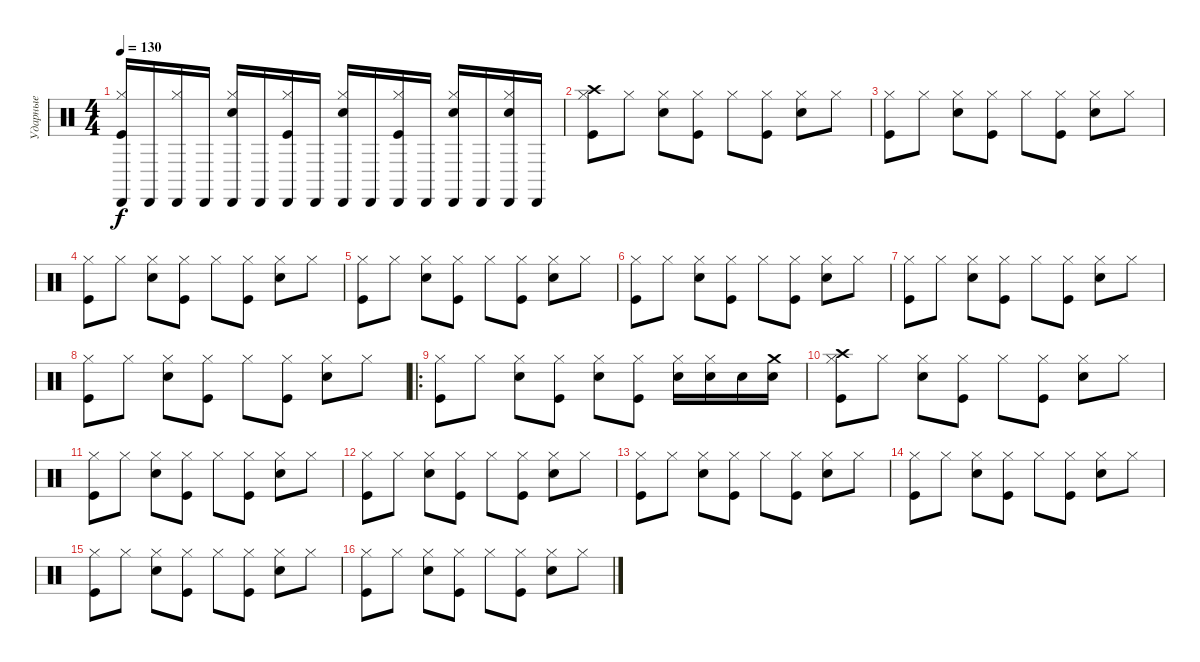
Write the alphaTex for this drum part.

\track ("Ударные" "Ударные") {instrument percussion}
\staff {score}
\articulation defaults
\ts (4 4)
\tempo 130
\clef neutral
\ks c
("Cabasa (hit)" "Hi-Hat (closed)" "Kick (hit)").16{dy f} "Cabasa (hit)".16 ("Cabasa (hit)" "Hi-Hat (closed)").16 "Cabasa (hit)".16 ("Cabasa (hit)" "Hi-Hat (closed)" "Electric Snare (hit)").16 "Cabasa (hit)".16 ("Cabasa (hit)" "Hi-Hat (closed)" "Kick (hit)").16 "Cabasa (hit)".16 ("Cabasa (hit)" "Hi-Hat (closed)" "Electric Snare (hit)").16 "Cabasa (hit)".16 ("Cabasa (hit)" "Hi-Hat (closed)" "Kick (hit)").16 "Cabasa (hit)".16 ("Cabasa (hit)" "Hi-Hat (closed)" "Electric Snare (hit)").16 "Cabasa (hit)".16 ("Cabasa (hit)" "Hi-Hat (closed)" "Electric Snare (hit)").16 "Cabasa (hit)".16 |
("Hi-Hat (closed)" "Crash high (hit)" "Kick (hit)").8 "Hi-Hat (closed)".8 ("Hi-Hat (closed)" "Electric Snare (hit)").8 ("Hi-Hat (closed)" "Kick (hit)").8 "Hi-Hat (closed)".8 ("Hi-Hat (closed)" "Kick (hit)").8 ("Hi-Hat (closed)" "Electric Snare (hit)").8 "Hi-Hat (closed)".8 |
("Hi-Hat (closed)" "Kick (hit)").8 "Hi-Hat (closed)".8 ("Hi-Hat (closed)" "Electric Snare (hit)").8 ("Hi-Hat (closed)" "Kick (hit)").8 "Hi-Hat (closed)".8 ("Hi-Hat (closed)" "Kick (hit)").8 ("Hi-Hat (closed)" "Electric Snare (hit)").8 "Hi-Hat (closed)".8 |
("Hi-Hat (closed)" "Kick (hit)").8 "Hi-Hat (closed)".8 ("Hi-Hat (closed)" "Electric Snare (hit)").8 ("Hi-Hat (closed)" "Kick (hit)").8 "Hi-Hat (closed)".8 ("Hi-Hat (closed)" "Kick (hit)").8 ("Hi-Hat (closed)" "Electric Snare (hit)").8 "Hi-Hat (closed)".8 |
("Hi-Hat (closed)" "Kick (hit)").8 "Hi-Hat (closed)".8 ("Hi-Hat (closed)" "Electric Snare (hit)").8 ("Hi-Hat (closed)" "Kick (hit)").8 "Hi-Hat (closed)".8 ("Hi-Hat (closed)" "Kick (hit)").8 ("Hi-Hat (closed)" "Electric Snare (hit)").8 "Hi-Hat (closed)".8 |
("Hi-Hat (closed)" "Kick (hit)").8 "Hi-Hat (closed)".8 ("Hi-Hat (closed)" "Electric Snare (hit)").8 ("Hi-Hat (closed)" "Kick (hit)").8 "Hi-Hat (closed)".8 ("Hi-Hat (closed)" "Kick (hit)").8 ("Hi-Hat (closed)" "Electric Snare (hit)").8 "Hi-Hat (closed)".8 |
("Hi-Hat (closed)" "Kick (hit)").8 "Hi-Hat (closed)".8 ("Hi-Hat (closed)" "Electric Snare (hit)").8 ("Hi-Hat (closed)" "Kick (hit)").8 "Hi-Hat (closed)".8 ("Hi-Hat (closed)" "Kick (hit)").8 ("Hi-Hat (closed)" "Electric Snare (hit)").8 "Hi-Hat (closed)".8 |
("Hi-Hat (closed)" "Kick (hit)").8 "Hi-Hat (closed)".8 ("Hi-Hat (closed)" "Electric Snare (hit)").8 ("Hi-Hat (closed)" "Kick (hit)").8 "Hi-Hat (closed)".8 ("Hi-Hat (closed)" "Kick (hit)").8 ("Hi-Hat (closed)" "Electric Snare (hit)").8 "Hi-Hat (closed)".8 |
\ro
("Hi-Hat (closed)" "Kick (hit)").8 "Hi-Hat (closed)".8 ("Hi-Hat (closed)" "Electric Snare (hit)").8 ("Hi-Hat (closed)" "Kick (hit)").8 ("Hi-Hat (closed)" "Electric Snare (hit)").8 ("Hi-Hat (closed)" "Kick (hit)").8 ("Hi-Hat (closed)" "Electric Snare (hit)").16 ("Hi-Hat (closed)" "Electric Snare (hit)").16 "Electric Snare (hit)".16 ("Crash medium (hit)" "Electric Snare (hit)").16 |
("Hi-Hat (closed)" "Crash high (hit)" "Kick (hit)").8 "Hi-Hat (closed)".8 ("Hi-Hat (closed)" "Electric Snare (hit)").8 ("Hi-Hat (closed)" "Kick (hit)").8 "Hi-Hat (closed)".8 ("Hi-Hat (closed)" "Kick (hit)").8 ("Hi-Hat (closed)" "Electric Snare (hit)").8 "Hi-Hat (closed)".8 |
("Hi-Hat (closed)" "Kick (hit)").8 "Hi-Hat (closed)".8 ("Hi-Hat (closed)" "Electric Snare (hit)").8 ("Hi-Hat (closed)" "Kick (hit)").8 "Hi-Hat (closed)".8 ("Hi-Hat (closed)" "Kick (hit)").8 ("Hi-Hat (closed)" "Electric Snare (hit)").8 "Hi-Hat (closed)".8 |
("Hi-Hat (closed)" "Kick (hit)").8 "Hi-Hat (closed)".8 ("Hi-Hat (closed)" "Electric Snare (hit)").8 ("Hi-Hat (closed)" "Kick (hit)").8 "Hi-Hat (closed)".8 ("Hi-Hat (closed)" "Kick (hit)").8 ("Hi-Hat (closed)" "Electric Snare (hit)").8 "Hi-Hat (closed)".8 |
("Hi-Hat (closed)" "Kick (hit)").8 "Hi-Hat (closed)".8 ("Hi-Hat (closed)" "Electric Snare (hit)").8 ("Hi-Hat (closed)" "Kick (hit)").8 "Hi-Hat (closed)".8 ("Hi-Hat (closed)" "Kick (hit)").8 ("Hi-Hat (closed)" "Electric Snare (hit)").8 "Hi-Hat (closed)".8 |
("Hi-Hat (closed)" "Kick (hit)").8 "Hi-Hat (closed)".8 ("Hi-Hat (closed)" "Electric Snare (hit)").8 ("Hi-Hat (closed)" "Kick (hit)").8 "Hi-Hat (closed)".8 ("Hi-Hat (closed)" "Kick (hit)").8 ("Hi-Hat (closed)" "Electric Snare (hit)").8 "Hi-Hat (closed)".8 |
("Hi-Hat (closed)" "Kick (hit)").8 "Hi-Hat (closed)".8 ("Hi-Hat (closed)" "Electric Snare (hit)").8 ("Hi-Hat (closed)" "Kick (hit)").8 "Hi-Hat (closed)".8 ("Hi-Hat (closed)" "Kick (hit)").8 ("Hi-Hat (closed)" "Electric Snare (hit)").8 "Hi-Hat (closed)".8 |
("Hi-Hat (closed)" "Kick (hit)").8 "Hi-Hat (closed)".8 ("Hi-Hat (closed)" "Electric Snare (hit)").8 ("Hi-Hat (closed)" "Kick (hit)").8 "Hi-Hat (closed)".8 ("Hi-Hat (closed)" "Kick (hit)").8 ("Hi-Hat (closed)" "Electric Snare (hit)").8 "Hi-Hat (closed)".8
